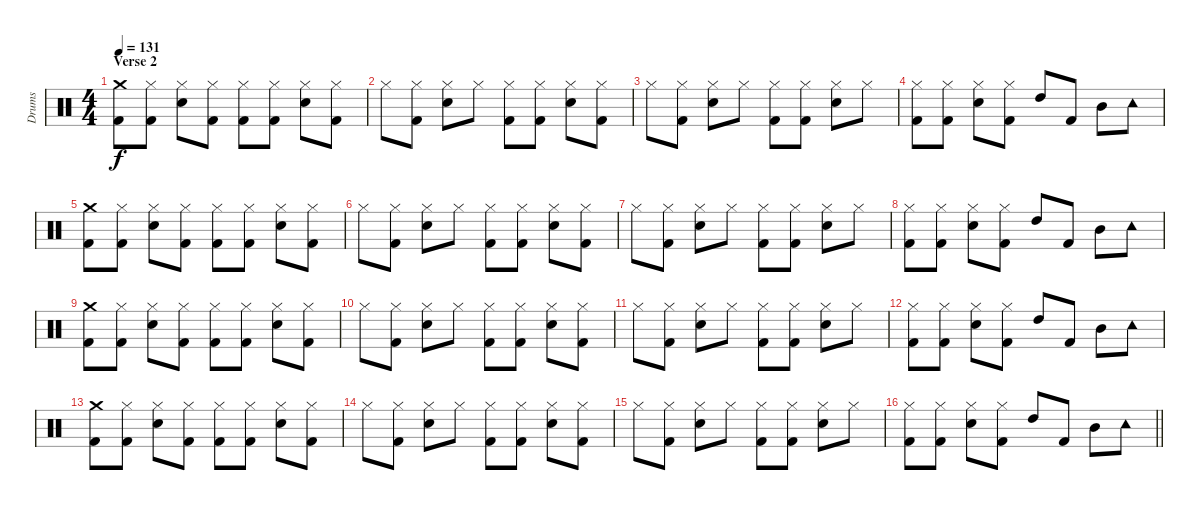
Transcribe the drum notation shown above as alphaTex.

\track ("Drums" "Drums") {instrument percussion}
\staff {score}
\articulation defaults
\ts (4 4)
\section ("" "Verse 2")
\tempo 131
\clef neutral
\ks c
("Crash medium (hit)" "Kick (hit) 2").8{dy f} ("Hi-Hat (closed)" "Kick (hit) 2").8 ("Hi-Hat (closed)" "Snare (hit) 2").8 ("Hi-Hat (closed)" "Kick (hit) 2").8 ("Hi-Hat (closed)" "Kick (hit) 2").8 ("Hi-Hat (closed)" "Kick (hit) 2").8 ("Hi-Hat (closed)" "Snare (hit) 2").8 ("Hi-Hat (closed)" "Kick (hit) 2").8 |
"Hi-Hat (closed)".8 ("Hi-Hat (closed)" "Kick (hit) 2").8 ("Hi-Hat (closed)" "Snare (hit) 2").8 "Hi-Hat (closed)".8 ("Hi-Hat (closed)" "Kick (hit) 2").8 ("Hi-Hat (closed)" "Kick (hit) 2").8 ("Hi-Hat (closed)" "Snare (hit) 2").8 ("Hi-Hat (closed)" "Kick (hit) 2").8 |
"Hi-Hat (closed)".8 ("Hi-Hat (closed)" "Kick (hit) 2").8 ("Hi-Hat (closed)" "Snare (hit) 2").8 "Hi-Hat (closed)".8 ("Hi-Hat (closed)" "Kick (hit) 2").8 ("Hi-Hat (closed)" "Kick (hit) 2").8 ("Hi-Hat (closed)" "Snare (hit) 2").8 "Hi-Hat (closed)".8 |
("Hi-Hat (closed)" "Kick (hit) 2").8 ("Hi-Hat (closed)" "Kick (hit) 2").8 ("Hi-Hat (closed)" "Snare (hit) 2").8 ("Hi-Hat (closed)" "Kick (hit) 2").8 "High Tom (hit)".8 "Kick (hit) 2".8 "Mid Tom (hit)".8 "Tambourine (hit)".8 |
("Crash medium (hit)" "Kick (hit) 2").8 ("Hi-Hat (closed)" "Kick (hit) 2").8 ("Hi-Hat (closed)" "Snare (hit) 2").8 ("Hi-Hat (closed)" "Kick (hit) 2").8 ("Hi-Hat (closed)" "Kick (hit) 2").8 ("Hi-Hat (closed)" "Kick (hit) 2").8 ("Hi-Hat (closed)" "Snare (hit) 2").8 ("Hi-Hat (closed)" "Kick (hit) 2").8 |
"Hi-Hat (closed)".8 ("Hi-Hat (closed)" "Kick (hit) 2").8 ("Hi-Hat (closed)" "Snare (hit) 2").8 "Hi-Hat (closed)".8 ("Hi-Hat (closed)" "Kick (hit) 2").8 ("Hi-Hat (closed)" "Kick (hit) 2").8 ("Hi-Hat (closed)" "Snare (hit) 2").8 ("Hi-Hat (closed)" "Kick (hit) 2").8 |
"Hi-Hat (closed)".8 ("Hi-Hat (closed)" "Kick (hit) 2").8 ("Hi-Hat (closed)" "Snare (hit) 2").8 "Hi-Hat (closed)".8 ("Hi-Hat (closed)" "Kick (hit) 2").8 ("Hi-Hat (closed)" "Kick (hit) 2").8 ("Hi-Hat (closed)" "Snare (hit) 2").8 "Hi-Hat (closed)".8 |
("Hi-Hat (closed)" "Kick (hit) 2").8 ("Hi-Hat (closed)" "Kick (hit) 2").8 ("Hi-Hat (closed)" "Snare (hit) 2").8 ("Hi-Hat (closed)" "Kick (hit) 2").8 "High Tom (hit)".8 "Kick (hit) 2".8 "Mid Tom (hit)".8 "Tambourine (hit)".8 |
("Crash medium (hit)" "Kick (hit) 2").8 ("Hi-Hat (closed)" "Kick (hit) 2").8 ("Hi-Hat (closed)" "Snare (hit) 2").8 ("Hi-Hat (closed)" "Kick (hit) 2").8 ("Hi-Hat (closed)" "Kick (hit) 2").8 ("Hi-Hat (closed)" "Kick (hit) 2").8 ("Hi-Hat (closed)" "Snare (hit) 2").8 ("Hi-Hat (closed)" "Kick (hit) 2").8 |
"Hi-Hat (closed)".8 ("Hi-Hat (closed)" "Kick (hit) 2").8 ("Hi-Hat (closed)" "Snare (hit) 2").8 "Hi-Hat (closed)".8 ("Hi-Hat (closed)" "Kick (hit) 2").8 ("Hi-Hat (closed)" "Kick (hit) 2").8 ("Hi-Hat (closed)" "Snare (hit) 2").8 ("Hi-Hat (closed)" "Kick (hit) 2").8 |
"Hi-Hat (closed)".8 ("Hi-Hat (closed)" "Kick (hit) 2").8 ("Hi-Hat (closed)" "Snare (hit) 2").8 "Hi-Hat (closed)".8 ("Hi-Hat (closed)" "Kick (hit) 2").8 ("Hi-Hat (closed)" "Kick (hit) 2").8 ("Hi-Hat (closed)" "Snare (hit) 2").8 "Hi-Hat (closed)".8 |
("Hi-Hat (closed)" "Kick (hit) 2").8 ("Hi-Hat (closed)" "Kick (hit) 2").8 ("Hi-Hat (closed)" "Snare (hit) 2").8 ("Hi-Hat (closed)" "Kick (hit) 2").8 "High Tom (hit)".8 "Kick (hit) 2".8 "Mid Tom (hit)".8 "Tambourine (hit)".8 |
("Crash medium (hit)" "Kick (hit) 2").8 ("Hi-Hat (closed)" "Kick (hit) 2").8 ("Hi-Hat (closed)" "Snare (hit) 2").8 ("Hi-Hat (closed)" "Kick (hit) 2").8 ("Hi-Hat (closed)" "Kick (hit) 2").8 ("Hi-Hat (closed)" "Kick (hit) 2").8 ("Hi-Hat (closed)" "Snare (hit) 2").8 ("Hi-Hat (closed)" "Kick (hit) 2").8 |
"Hi-Hat (closed)".8 ("Hi-Hat (closed)" "Kick (hit) 2").8 ("Hi-Hat (closed)" "Snare (hit) 2").8 "Hi-Hat (closed)".8 ("Hi-Hat (closed)" "Kick (hit) 2").8 ("Hi-Hat (closed)" "Kick (hit) 2").8 ("Hi-Hat (closed)" "Snare (hit) 2").8 ("Hi-Hat (closed)" "Kick (hit) 2").8 |
"Hi-Hat (closed)".8 ("Hi-Hat (closed)" "Kick (hit) 2").8 ("Hi-Hat (closed)" "Snare (hit) 2").8 "Hi-Hat (closed)".8 ("Hi-Hat (closed)" "Kick (hit) 2").8 ("Hi-Hat (closed)" "Kick (hit) 2").8 ("Hi-Hat (closed)" "Snare (hit) 2").8 "Hi-Hat (closed)".8 |
\barLineRight lightlight
("Hi-Hat (closed)" "Kick (hit) 2").8 ("Hi-Hat (closed)" "Kick (hit) 2").8 ("Hi-Hat (closed)" "Snare (hit) 2").8 ("Hi-Hat (closed)" "Kick (hit) 2").8 "High Tom (hit)".8 "Kick (hit) 2".8 "Mid Tom (hit)".8 "Tambourine (hit)".8
